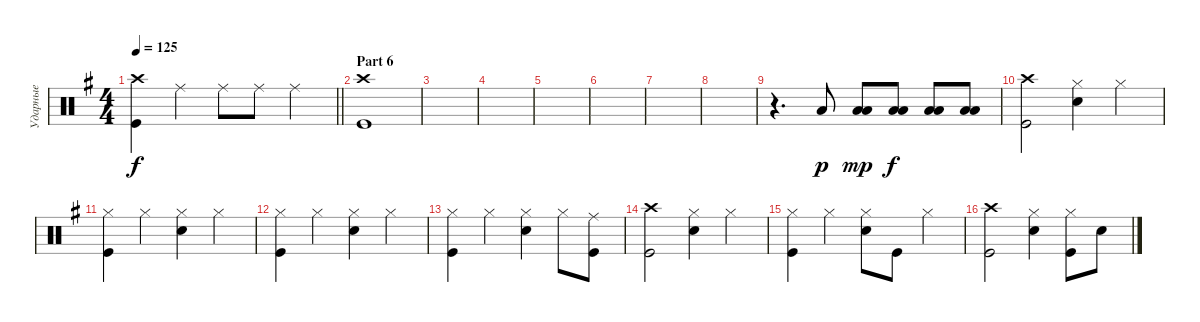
\track ("Ударные" "Ударные") {instrument percussion}
\staff {score}
\articulation defaults
\ts (4 4)
\tempo 125
\clef neutral
\barLineRight lightlight
\ks eminor
("Kick (hit)" "Crash high (hit)").4{dy f} "Ride (middle)".4 "Ride (middle)".8 "Ride (middle)".8 "Ride (middle)".4 |
\section ("" "Part 6")
("Kick (hit)" "Crash high (hit)").1 |
|
|
|
|
|
|
r.4{d} "Low Tom (hit)".8{dy p} ("Low Tom (hit)" "Low Tom (hit)").8{bd 120 dy mp} ("Low Tom (hit)" "Low Tom (hit)").8{bd 120 dy f} ("Low Tom (hit)" "Low Tom (hit)").8{bd 120} ("Low Tom (hit)" "Low Tom (hit)").8{bd 120} |
("Kick (hit)" "Crash high (hit)").2 ("Hi-Hat (closed)" "Snare (hit) 2").4 "Hi-Hat (closed)".4 |
("Kick (hit)" "Hi-Hat (closed)").4 "Hi-Hat (closed)".4 ("Hi-Hat (closed)" "Snare (hit) 2").4 "Hi-Hat (closed)".4 |
("Kick (hit)" "Hi-Hat (closed)").4 "Hi-Hat (closed)".4 ("Hi-Hat (closed)" "Snare (hit) 2").4 "Hi-Hat (closed)".4 |
("Kick (hit)" "Hi-Hat (closed)").4 "Hi-Hat (closed)".4 ("Hi-Hat (closed)" "Snare (hit) 2").4 "Hi-Hat (closed)".8 ("Kick (hit)" "Ride (middle)").8 |
("Kick (hit)" "Crash high (hit)").2 ("Hi-Hat (closed)" "Snare (hit) 2").4 "Hi-Hat (closed)".4 |
("Kick (hit)" "Hi-Hat (closed)").4 "Hi-Hat (closed)".4 ("Hi-Hat (closed)" "Snare (hit) 2").8 "Kick (hit)".8 "Hi-Hat (closed)".4 |
("Kick (hit)" "Crash high (hit)").2 ("Hi-Hat (closed)" "Snare (hit) 2").4 ("Hi-Hat (closed)" "Kick (hit)").8 "Snare (hit) 2".8
